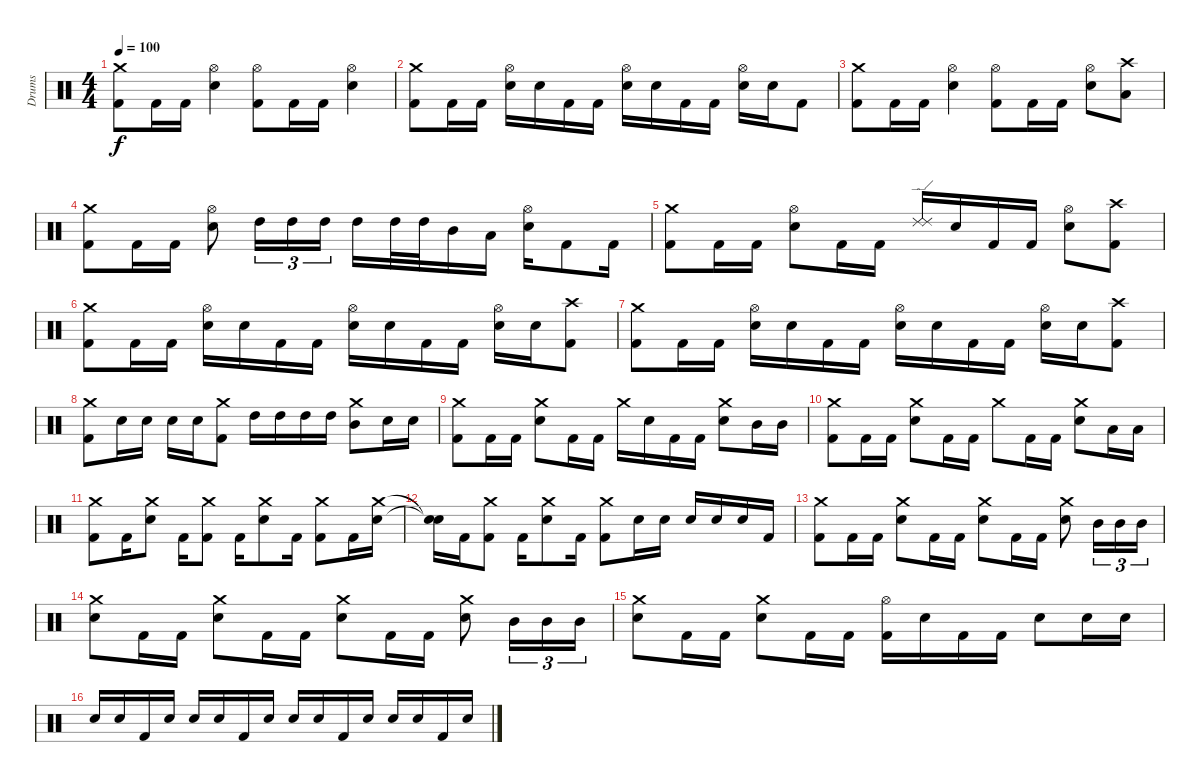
\track ("Drums" "Drums") {instrument percussion}
\staff {score}
\articulation defaults
\ts (4 4)
\tempo 100
\clef neutral
\ks c
("Crash medium (hit)" "Kick (hit) 2").8{dy f} "Kick (hit) 2".16 "Kick (hit) 2".16 ("Hi-Hat (open)" "Electric Snare (hit)").4 ("Hi-Hat (open)" "Kick (hit) 2").8 "Kick (hit) 2".16 "Kick (hit) 2".16 ("Hi-Hat (open)" "Electric Snare (hit)").4 |
("Crash medium (hit)" "Kick (hit) 2").8 "Kick (hit) 2".16 "Kick (hit) 2".16 ("Hi-Hat (open)" "Electric Snare (hit)").16 "Electric Snare (hit)".16 "Kick (hit) 2".16 "Kick (hit) 2".16 ("Hi-Hat (open)" "Electric Snare (hit)").16 "Electric Snare (hit)".16 "Kick (hit) 2".16 "Kick (hit) 2".16 ("Hi-Hat (open)" "Electric Snare (hit)").16 "Electric Snare (hit)".16 "Kick (hit) 2".8 |
("Crash medium (hit)" "Kick (hit) 2").8 "Kick (hit) 2".16 "Kick (hit) 2".16 ("Hi-Hat (open)" "Electric Snare (hit)").4 ("Hi-Hat (open)" "Kick (hit) 2").8 "Kick (hit) 2".16 "Kick (hit) 2".16 ("Hi-Hat (open)" "Electric Snare (hit)").8 ("Crash high (hit)" "Low Tom (hit)").8 |
("Crash medium (hit)" "Kick (hit) 2").8 "Kick (hit) 2".16 "Kick (hit) 2".16 ("Hi-Hat (open)" "Electric Snare (hit)").8 "High Tom (hit)".16{tu (3 2)} "High Tom (hit)".16{tu (3 2)} "High Tom (hit)".16{tu (3 2)} "High Tom (hit)".16 "High Tom (hit)".32 "High Tom (hit)".32 "Mid Tom (hit)".16 "Low Tom (hit)".16 ("Hi-Hat (open)" "Electric Snare (hit)").16 "Kick (hit) 2".8 "Kick (hit) 2".16 |
("Crash medium (hit)" "Kick (hit) 2").8 "Kick (hit) 2".16 "Kick (hit) 2".16 ("Hi-Hat (open)" "Electric Snare (hit)").8 "Kick (hit) 2".16 "Kick (hit) 2".16 ("Ride (edge) 2" "Ride (edge) 2").16 "Electric Snare (hit)".16 "Kick (hit) 2".16 "Kick (hit) 2".16 ("Hi-Hat (open)" "Electric Snare (hit)").8 ("Crash high (hit)" "Kick (hit) 2").8 |
("Crash medium (hit)" "Kick (hit) 2").8 "Kick (hit) 2".16 "Kick (hit) 2".16 ("Hi-Hat (open)" "Electric Snare (hit)").16 "Electric Snare (hit)".16 "Kick (hit) 2".16 "Kick (hit) 2".16 ("Hi-Hat (open)" "Electric Snare (hit)").16 "Electric Snare (hit)".16 "Kick (hit) 2".16 "Kick (hit) 2".16 ("Hi-Hat (open)" "Electric Snare (hit)").16 "Electric Snare (hit)".16 ("Crash high (hit)" "Kick (hit) 2").8 |
("Crash medium (hit)" "Kick (hit) 2").8 "Kick (hit) 2".16 "Kick (hit) 2".16 ("Hi-Hat (open)" "Electric Snare (hit)").16 "Electric Snare (hit)".16 "Kick (hit) 2".16 "Kick (hit) 2".16 ("Hi-Hat (open)" "Electric Snare (hit)").16 "Electric Snare (hit)".16 "Kick (hit) 2".16 "Kick (hit) 2".16 ("Hi-Hat (open)" "Electric Snare (hit)").16 "Electric Snare (hit)".16 ("Crash high (hit)" "Kick (hit) 2").8 |
("Crash medium (hit)" "Kick (hit) 2").8 "Electric Snare (hit)".16 "Electric Snare (hit)".16 "Electric Snare (hit)".16 "Electric Snare (hit)".16 ("Crash medium (hit)" "Kick (hit) 2").8 "High Tom (hit)".16 "High Tom (hit)".16 "High Tom (hit)".16 "High Tom (hit)".16 ("Crash medium (hit)" "Mid Tom (hit)").8 "Electric Snare (hit)".16 "Electric Snare (hit)".16 |
("Crash medium (hit)" "Kick (hit) 2").8 "Kick (hit) 2".16 "Kick (hit) 2".16 ("Crash medium (hit)" "Electric Snare (hit)").8 "Kick (hit) 2".16 "Kick (hit) 2".16 "Crash medium (hit)".16 "Electric Snare (hit)".16 "Kick (hit) 2".16 "Kick (hit) 2".16 ("Crash medium (hit)" "Electric Snare (hit)").8 "Mid Tom (hit)".16 "Mid Tom (hit)".16 |
("Crash medium (hit)" "Kick (hit) 2").8 "Kick (hit) 2".16 "Kick (hit) 2".16 ("Crash medium (hit)" "Electric Snare (hit)").8 "Kick (hit) 2".16 "Kick (hit) 2".16 "Crash medium (hit)".8 "Kick (hit) 2".16 "Kick (hit) 2".16 ("Crash medium (hit)" "Electric Snare (hit)").8 "Low Tom (hit)".16 "Low Tom (hit)".16 |
("Crash medium (hit)" "Kick (hit) 2").8 "Kick (hit) 2".16 ("Crash medium (hit)" "Electric Snare (hit)").8 "Kick (hit) 2".16 ("Crash medium (hit)" "Kick (hit) 2").8 "Kick (hit) 2".16{volume 14} ("Crash medium (hit)" "Electric Snare (hit)").8 "Kick (hit) 2".16 ("Crash medium (hit)" "Kick (hit) 2").8 "Kick (hit) 2".16 ("Crash medium (hit)" "Electric Snare (hit)").16 |
("Snare (hit)"{t} "Snare (hit)"{t}).16{volume 13} "Kick (hit) 2".16 ("Crash medium (hit)" "Kick (hit) 2").8 "Kick (hit) 2".16 ("Crash medium (hit)" "Electric Snare (hit)").8 "Kick (hit) 2".16 ("Crash medium (hit)" "Kick (hit) 2").8{volume 12} "Electric Snare (hit)".16 "Electric Snare (hit)".16 "Electric Snare (hit)".16 "Electric Snare (hit)".16 "Electric Snare (hit)".16 "Kick (hit) 2".16 |
("Crash medium (hit)" "Kick (hit) 2").8{volume 11} "Kick (hit) 2".16 "Kick (hit) 2".16 ("Crash medium (hit)" "Electric Snare (hit)").8 "Kick (hit) 2".16 "Kick (hit) 2".16 ("Crash medium (hit)" "Electric Snare (hit)").8{volume 10} "Kick (hit) 2".16 "Kick (hit) 2".16 ("Crash medium (hit)" "Electric Snare (hit)").8 "Mid Tom (hit)".16{tu (3 2)} "Mid Tom (hit)".16{tu (3 2)} "Mid Tom (hit)".16{tu (3 2)} |
("Crash medium (hit)" "Electric Snare (hit)").8{volume 9} "Kick (hit) 2".16 "Kick (hit) 2".16 ("Crash medium (hit)" "Electric Snare (hit)").8 "Kick (hit) 2".16 "Kick (hit) 2".16 ("Crash medium (hit)" "Electric Snare (hit)").8{volume 8} "Kick (hit) 2".16 "Kick (hit) 2".16 ("Crash medium (hit)" "Electric Snare (hit)").8 "Mid Tom (hit)".16{tu (3 2)} "Mid Tom (hit)".16{tu (3 2)} "Mid Tom (hit)".16{tu (3 2)} |
("Crash medium (hit)" "Electric Snare (hit)").8{volume 7} "Kick (hit) 2".16 "Kick (hit) 2".16 ("Crash medium (hit)" "Electric Snare (hit)").8 "Kick (hit) 2".16 "Kick (hit) 2".16 ("Hi-Hat (open)" "Kick (hit) 2").16{volume 6} "Electric Snare (hit)".16 "Kick (hit) 2".16 "Kick (hit) 2".16 "Electric Snare (hit)".8 "Electric Snare (hit)".16 "Electric Snare (hit)".16 |
"Electric Snare (hit)".16{volume 5} "Electric Snare (hit)".16 "Kick (hit) 2".16 "Electric Snare (hit)".16 "Electric Snare (hit)".16 "Electric Snare (hit)".16 "Kick (hit) 2".16 "Electric Snare (hit)".16 "Electric Snare (hit)".16{volume 4} "Electric Snare (hit)".16 "Kick (hit) 2".16 "Electric Snare (hit)".16 "Electric Snare (hit)".16 "Electric Snare (hit)".16 "Kick (hit) 2".16 "Electric Snare (hit)".16
